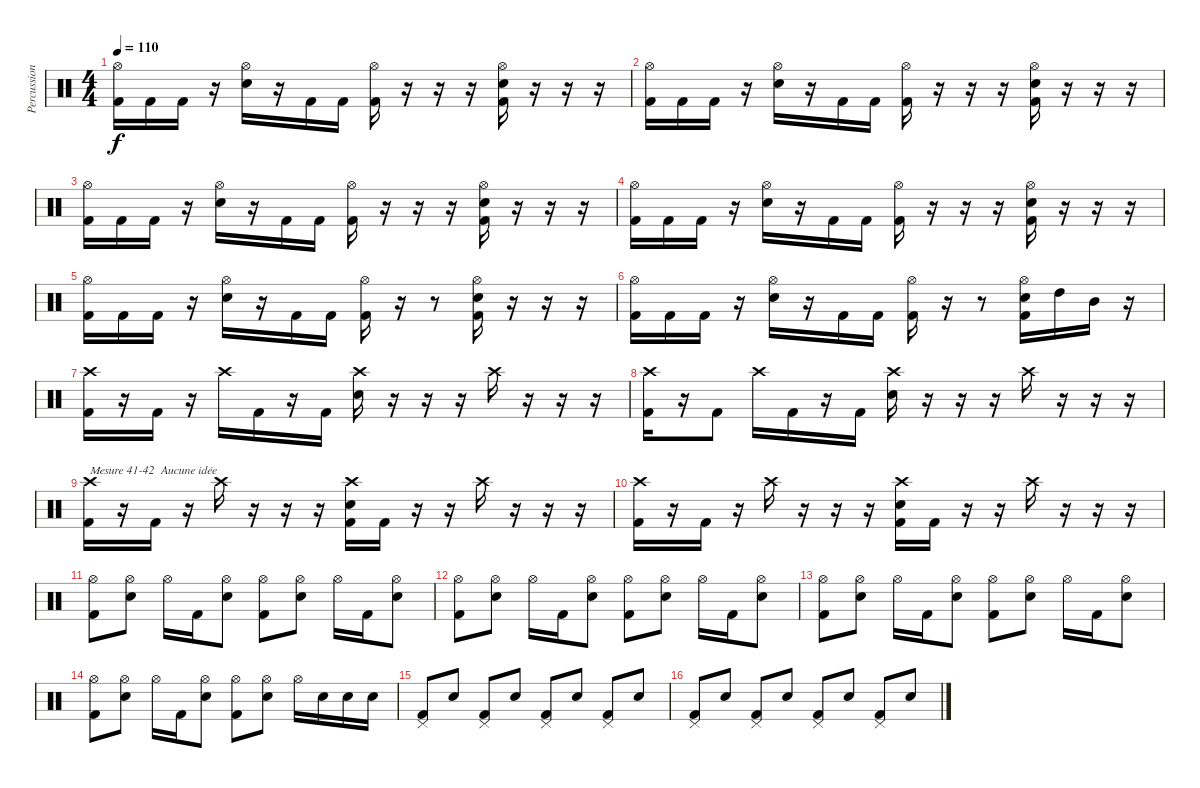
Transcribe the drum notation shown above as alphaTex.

\track ("Percussions" "Percussion") {instrument percussion}
\staff {score}
\articulation defaults
\ts (4 4)
\tempo 110
\clef neutral
\ks c
("Hi-Hat (open)" "Kick (hit) 2").16{dy f} "Kick (hit) 2".16 "Kick (hit) 2".16 r.16 ("Hi-Hat (open)" "Electric Snare (hit)").16 r.16 "Kick (hit) 2".16 "Kick (hit) 2".16 ("Hi-Hat (open)" "Kick (hit) 2").16 r.16 r.16 r.16 ("Hi-Hat (open)" "Electric Snare (hit)" "Kick (hit) 2").16 r.16 r.16 r.16 |
("Hi-Hat (open)" "Kick (hit) 2").16 "Kick (hit) 2".16 "Kick (hit) 2".16 r.16 ("Hi-Hat (open)" "Electric Snare (hit)").16 r.16 "Kick (hit) 2".16 "Kick (hit) 2".16 ("Hi-Hat (open)" "Kick (hit) 2").16 r.16 r.16 r.16 ("Hi-Hat (open)" "Electric Snare (hit)" "Kick (hit) 2").16 r.16 r.16 r.16 |
("Hi-Hat (open)" "Kick (hit) 2").16 "Kick (hit) 2".16 "Kick (hit) 2".16 r.16 ("Hi-Hat (open)" "Electric Snare (hit)").16 r.16 "Kick (hit) 2".16 "Kick (hit) 2".16 ("Hi-Hat (open)" "Kick (hit) 2").16 r.16 r.16 r.16 ("Hi-Hat (open)" "Electric Snare (hit)" "Kick (hit) 2").16 r.16 r.16 r.16 |
("Hi-Hat (open)" "Kick (hit) 2").16 "Kick (hit) 2".16 "Kick (hit) 2".16 r.16 ("Hi-Hat (open)" "Electric Snare (hit)").16 r.16 "Kick (hit) 2".16 "Kick (hit) 2".16 ("Hi-Hat (open)" "Kick (hit) 2").16 r.16 r.16 r.16 ("Hi-Hat (open)" "Electric Snare (hit)" "Kick (hit) 2").16 r.16 r.16 r.16 |
("Hi-Hat (open)" "Kick (hit) 2").16 "Kick (hit) 2".16 "Kick (hit) 2".16 r.16 ("Hi-Hat (open)" "Electric Snare (hit)").16 r.16 "Kick (hit) 2".16 "Kick (hit) 2".16 ("Hi-Hat (open)" "Kick (hit) 2").16 r.16 r.8 ("Hi-Hat (open)" "Electric Snare (hit)" "Kick (hit) 2").16 r.16 r.16 r.16 |
("Hi-Hat (open)" "Kick (hit) 2").16 "Kick (hit) 2".16 "Kick (hit) 2".16 r.16 ("Hi-Hat (open)" "Electric Snare (hit)").16 r.16 "Kick (hit) 2".16 "Kick (hit) 2".16 ("Hi-Hat (open)" "Kick (hit) 2").16 r.16 r.8 ("Hi-Hat (open)" "Electric Snare (hit)" "Kick (hit) 2").16 "High Tom (hit)".16 "Mid Tom (hit)".16 r.16 |
("Crash high (hit)" "Kick (hit) 2").16 r.16 "Kick (hit) 2".16 r.16 "Crash high (hit)".16 "Kick (hit) 2".16 r.16 "Kick (hit) 2".16 ("Crash high (hit)" "Electric Snare (hit)").16 r.16 r.16 r.16 "Crash high (hit)".16 r.16 r.16 r.16 |
("Crash high (hit)" "Kick (hit) 2").16 r.16 "Kick (hit) 2".8 "Crash high (hit)".16 "Kick (hit) 2".16 r.16 "Kick (hit) 2".16 ("Crash high (hit)" "Electric Snare (hit)").16 r.16 r.16 r.16 "Crash high (hit)".16 r.16 r.16 r.16 |
("Crash high (hit)" "Kick (hit) 2").16{txt "Mesure 41-42  Aucune idée"} r.16 "Kick (hit) 2".16 r.16 "Crash high (hit)".16 r.16 r.16 r.16 ("Crash high (hit)" "Electric Snare (hit)" "Kick (hit) 2").16 "Kick (hit) 2".16 r.16 r.16 "Crash high (hit)".16 r.16 r.16 r.16 |
("Crash high (hit)" "Kick (hit) 2").16 r.16 "Kick (hit) 2".16 r.16 "Crash high (hit)".16 r.16 r.16 r.16 ("Crash high (hit)" "Electric Snare (hit)" "Kick (hit) 2").16 "Kick (hit) 2".16 r.16 r.16 "Crash high (hit)".16 r.16 r.16 r.16 |
("Hi-Hat (open)" "Kick (hit) 2").8 ("Hi-Hat (open)" "Electric Snare (hit)").8 "Hi-Hat (open)".16 "Kick (hit) 2".16 ("Hi-Hat (open)" "Electric Snare (hit)").8 ("Hi-Hat (open)" "Kick (hit) 2").8 ("Hi-Hat (open)" "Electric Snare (hit)").8 "Hi-Hat (open)".16 "Kick (hit) 2".16 ("Hi-Hat (open)" "Electric Snare (hit)").8 |
("Hi-Hat (open)" "Kick (hit) 2").8 ("Hi-Hat (open)" "Electric Snare (hit)").8 "Hi-Hat (open)".16 "Kick (hit) 2".16 ("Hi-Hat (open)" "Electric Snare (hit)").8 ("Hi-Hat (open)" "Kick (hit) 2").8 ("Hi-Hat (open)" "Electric Snare (hit)").8 "Hi-Hat (open)".16 "Kick (hit) 2".16 ("Hi-Hat (open)" "Electric Snare (hit)").8 |
("Hi-Hat (open)" "Kick (hit) 2").8 ("Hi-Hat (open)" "Electric Snare (hit)").8 "Hi-Hat (open)".16 "Kick (hit) 2".16 ("Hi-Hat (open)" "Electric Snare (hit)").8 ("Hi-Hat (open)" "Kick (hit) 2").8 ("Hi-Hat (open)" "Electric Snare (hit)").8 "Hi-Hat (open)".16 "Kick (hit) 2".16 ("Hi-Hat (open)" "Electric Snare (hit)").8 |
("Hi-Hat (open)" "Kick (hit) 2").8 ("Hi-Hat (open)" "Electric Snare (hit)").8 "Hi-Hat (open)".16 "Kick (hit) 2".16 ("Hi-Hat (open)" "Electric Snare (hit)").8 ("Hi-Hat (open)" "Kick (hit) 2").8 ("Hi-Hat (open)" "Electric Snare (hit)").8 "Hi-Hat (open)".16 "Electric Snare (hit)".16 "Electric Snare (hit)".16 "Electric Snare (hit)".16 |
("Pedal Hi-Hat (hit)" "Kick (hit) 2").8 "Electric Snare (hit)".8 ("Pedal Hi-Hat (hit)" "Kick (hit) 2").8 "Electric Snare (hit)".8 ("Pedal Hi-Hat (hit)" "Kick (hit) 2").8 "Electric Snare (hit)".8 ("Pedal Hi-Hat (hit)" "Kick (hit) 2").8 "Electric Snare (hit)".8 |
("Pedal Hi-Hat (hit)" "Kick (hit) 2").8 "Electric Snare (hit)".8 ("Pedal Hi-Hat (hit)" "Kick (hit) 2").8 "Electric Snare (hit)".8 ("Pedal Hi-Hat (hit)" "Kick (hit) 2").8 "Electric Snare (hit)".8 ("Pedal Hi-Hat (hit)" "Kick (hit) 2").8 "Electric Snare (hit)".8
